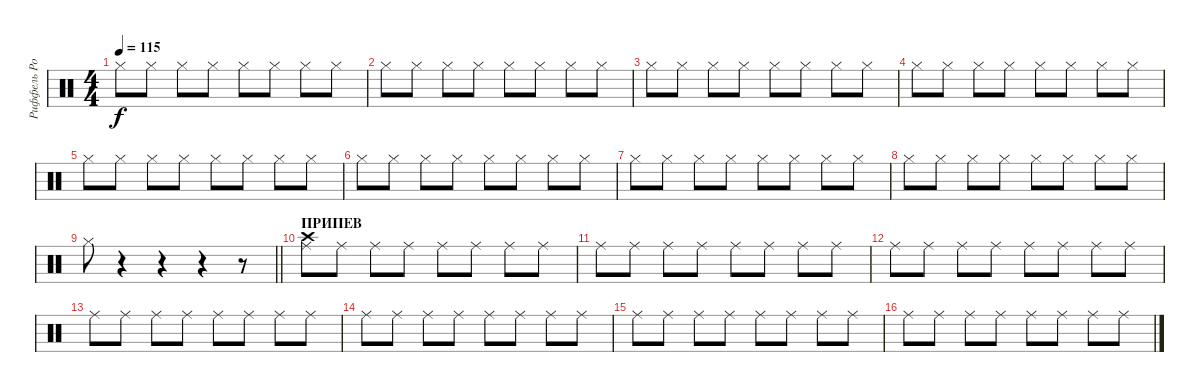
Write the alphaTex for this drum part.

\track ("Риффель Роман (хэты)" "Риффель Ро") {instrument percussion}
\staff {score}
\articulation defaults
\ts (4 4)
\tempo 115
\clef neutral
\ks c "Hi-Hat (closed)".8{dy f} "Hi-Hat (closed)".8 "Hi-Hat (closed)".8 "Hi-Hat (closed)".8 "Hi-Hat (closed)".8 "Hi-Hat (closed)".8 "Hi-Hat (closed)".8 "Hi-Hat (closed)".8
|
"Hi-Hat (closed)".8 "Hi-Hat (closed)".8 "Hi-Hat (closed)".8 "Hi-Hat (closed)".8 "Hi-Hat (closed)".8 "Hi-Hat (closed)".8 "Hi-Hat (closed)".8 "Hi-Hat (closed)".8 |
"Hi-Hat (closed)".8 "Hi-Hat (closed)".8 "Hi-Hat (closed)".8 "Hi-Hat (closed)".8 "Hi-Hat (closed)".8 "Hi-Hat (closed)".8 "Hi-Hat (closed)".8 "Hi-Hat (closed)".8 |
"Hi-Hat (closed)".8 "Hi-Hat (closed)".8 "Hi-Hat (closed)".8 "Hi-Hat (closed)".8 "Hi-Hat (closed)".8 "Hi-Hat (closed)".8 "Hi-Hat (closed)".8 "Hi-Hat (closed)".8 |
"Hi-Hat (closed)".8 "Hi-Hat (closed)".8 "Hi-Hat (closed)".8 "Hi-Hat (closed)".8 "Hi-Hat (closed)".8 "Hi-Hat (closed)".8 "Hi-Hat (closed)".8 "Hi-Hat (closed)".8 |
"Hi-Hat (closed)".8 "Hi-Hat (closed)".8 "Hi-Hat (closed)".8 "Hi-Hat (closed)".8 "Hi-Hat (closed)".8 "Hi-Hat (closed)".8 "Hi-Hat (closed)".8 "Hi-Hat (closed)".8 |
"Hi-Hat (closed)".8 "Hi-Hat (closed)".8 "Hi-Hat (closed)".8 "Hi-Hat (closed)".8 "Hi-Hat (closed)".8 "Hi-Hat (closed)".8 "Hi-Hat (closed)".8 "Hi-Hat (closed)".8 |
"Hi-Hat (closed)".8 "Hi-Hat (closed)".8 "Hi-Hat (closed)".8 "Hi-Hat (closed)".8 "Hi-Hat (closed)".8 "Hi-Hat (closed)".8 "Hi-Hat (closed)".8 "Hi-Hat (closed)".8 |
\barLineRight lightlight "Hi-Hat (closed)".8
r.4 r.4 r.4 r.8 |
\section ("" "ПРИПЕВ")
("Ride (middle)" "Crash high (hit)").8 "Ride (middle)".8 "Ride (middle)".8 "Ride (middle)".8 "Ride (middle)".8 "Ride (middle)".8 "Ride (middle)".8 "Ride (middle)".8 |
"Ride (middle)".8 "Ride (middle)".8 "Ride (middle)".8 "Ride (middle)".8 "Ride (middle)".8 "Ride (middle)".8 "Ride (middle)".8 "Ride (middle)".8 |
"Ride (middle)".8 "Ride (middle)".8 "Ride (middle)".8 "Ride (middle)".8 "Ride (middle)".8 "Ride (middle)".8 "Ride (middle)".8 "Ride (middle)".8 |
"Ride (middle)".8 "Ride (middle)".8 "Ride (middle)".8 "Ride (middle)".8 "Ride (middle)".8 "Ride (middle)".8 "Ride (middle)".8 "Ride (middle)".8 |
"Ride (middle)".8 "Ride (middle)".8 "Ride (middle)".8 "Ride (middle)".8 "Ride (middle)".8 "Ride (middle)".8 "Ride (middle)".8 "Ride (middle)".8 |
"Ride (middle)".8 "Ride (middle)".8 "Ride (middle)".8 "Ride (middle)".8 "Ride (middle)".8 "Ride (middle)".8 "Ride (middle)".8 "Ride (middle)".8 |
"Ride (middle)".8 "Ride (middle)".8 "Ride (middle)".8 "Ride (middle)".8 "Ride (middle)".8 "Ride (middle)".8 "Ride (middle)".8 "Ride (middle)".8
